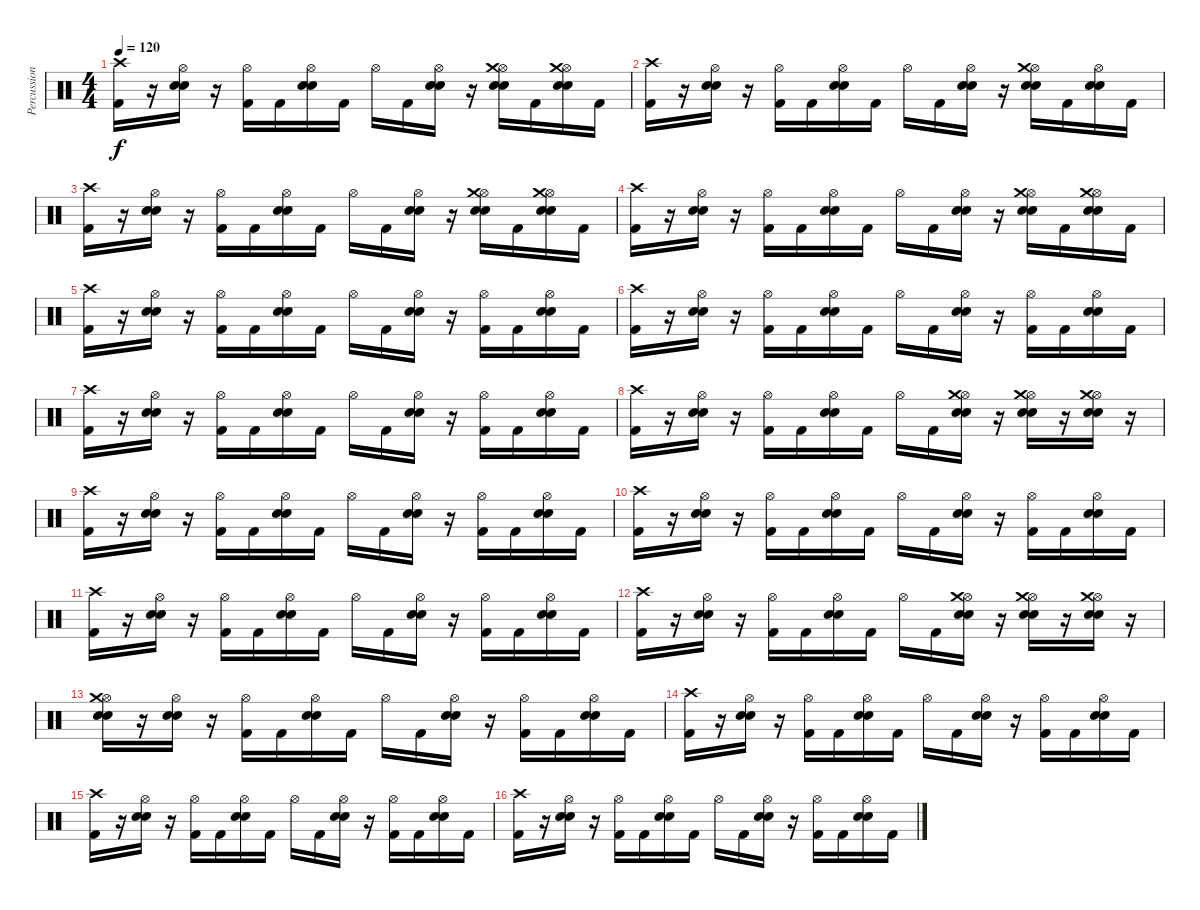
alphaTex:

\track ("Percussion" "Percussion") {instrument percussion}
\staff {score}
\articulation defaults
\ts (4 4)
\tempo 120
\clef neutral
\ks c
("Kick (hit) 2" "Crash high (hit)").16{dy f} r.16 ("Hi-Hat (open)" "Electric Snare (hit)" "Snare (hit) 2").16 r.16 ("Kick (hit) 2" "Hi-Hat (open)").16 "Kick (hit) 2".16 ("Electric Snare (hit)" "Hi-Hat (open)" "Snare (hit) 2").16 "Kick (hit) 2".16 "Hi-Hat (open)".16 "Kick (hit) 2".16 ("Hi-Hat (open)" "Electric Snare (hit)" "Snare (hit) 2").16 r.16 ("Hi-Hat (open)" "Electric Snare (hit)" "Snare (hit) 2" "Crash medium (hit)").16 "Kick (hit) 2".16 ("Hi-Hat (open)" "Electric Snare (hit)" "Snare (hit) 2" "Crash medium (hit)").16 "Kick (hit) 2".16 |
("Kick (hit) 2" "Crash high (hit)").16 r.16 ("Hi-Hat (open)" "Electric Snare (hit)" "Snare (hit) 2").16 r.16 ("Kick (hit) 2" "Hi-Hat (open)").16 "Kick (hit) 2".16 ("Electric Snare (hit)" "Hi-Hat (open)" "Snare (hit) 2").16 "Kick (hit) 2".16 "Hi-Hat (open)".16 "Kick (hit) 2".16 ("Hi-Hat (open)" "Electric Snare (hit)" "Snare (hit) 2").16 r.16 ("Hi-Hat (open)" "Electric Snare (hit)" "Snare (hit) 2" "Crash medium (hit)").16 "Kick (hit) 2".16 ("Hi-Hat (open)" "Electric Snare (hit)" "Snare (hit) 2").16 "Kick (hit) 2".16 |
("Kick (hit) 2" "Crash high (hit)").16 r.16 ("Hi-Hat (open)" "Electric Snare (hit)" "Snare (hit) 2").16 r.16 ("Kick (hit) 2" "Hi-Hat (open)").16 "Kick (hit) 2".16 ("Electric Snare (hit)" "Hi-Hat (open)" "Snare (hit) 2").16 "Kick (hit) 2".16 "Hi-Hat (open)".16 "Kick (hit) 2".16 ("Hi-Hat (open)" "Electric Snare (hit)" "Snare (hit) 2").16 r.16 ("Hi-Hat (open)" "Electric Snare (hit)" "Snare (hit) 2" "Crash medium (hit)").16 "Kick (hit) 2".16 ("Hi-Hat (open)" "Electric Snare (hit)" "Snare (hit) 2" "Crash medium (hit)").16 "Kick (hit) 2".16 |
("Kick (hit) 2" "Crash high (hit)").16 r.16 ("Hi-Hat (open)" "Electric Snare (hit)" "Snare (hit) 2").16 r.16 ("Kick (hit) 2" "Hi-Hat (open)").16 "Kick (hit) 2".16 ("Electric Snare (hit)" "Hi-Hat (open)" "Snare (hit) 2").16 "Kick (hit) 2".16 "Hi-Hat (open)".16 "Kick (hit) 2".16 ("Hi-Hat (open)" "Electric Snare (hit)" "Snare (hit) 2").16 r.16 ("Hi-Hat (open)" "Electric Snare (hit)" "Snare (hit) 2" "Crash medium (hit)").16 "Kick (hit) 2".16 ("Hi-Hat (open)" "Electric Snare (hit)" "Snare (hit) 2" "Crash medium (hit)").16 "Kick (hit) 2".16 |
("Kick (hit) 2" "Crash high (hit)").16 r.16 ("Hi-Hat (open)" "Electric Snare (hit)" "Snare (hit) 2").16 r.16 ("Kick (hit) 2" "Hi-Hat (open)").16 "Kick (hit) 2".16 ("Electric Snare (hit)" "Hi-Hat (open)" "Snare (hit) 2").16 "Kick (hit) 2".16 "Hi-Hat (open)".16 "Kick (hit) 2".16 ("Hi-Hat (open)" "Electric Snare (hit)" "Snare (hit) 2").16 r.16 ("Kick (hit) 2" "Hi-Hat (open)").16 "Kick (hit) 2".16 ("Electric Snare (hit)" "Hi-Hat (open)" "Snare (hit) 2").16 "Kick (hit) 2".16 |
("Kick (hit) 2" "Crash high (hit)").16 r.16 ("Hi-Hat (open)" "Electric Snare (hit)" "Snare (hit) 2").16 r.16 ("Kick (hit) 2" "Hi-Hat (open)").16 "Kick (hit) 2".16 ("Electric Snare (hit)" "Hi-Hat (open)" "Snare (hit) 2").16 "Kick (hit) 2".16 "Hi-Hat (open)".16 "Kick (hit) 2".16 ("Hi-Hat (open)" "Electric Snare (hit)" "Snare (hit) 2").16 r.16 ("Kick (hit) 2" "Hi-Hat (open)").16 "Kick (hit) 2".16 ("Electric Snare (hit)" "Hi-Hat (open)" "Snare (hit) 2").16 "Kick (hit) 2".16 |
("Kick (hit) 2" "Crash high (hit)").16 r.16 ("Hi-Hat (open)" "Electric Snare (hit)" "Snare (hit) 2").16 r.16 ("Kick (hit) 2" "Hi-Hat (open)").16 "Kick (hit) 2".16 ("Electric Snare (hit)" "Hi-Hat (open)" "Snare (hit) 2").16 "Kick (hit) 2".16 "Hi-Hat (open)".16 "Kick (hit) 2".16 ("Hi-Hat (open)" "Electric Snare (hit)" "Snare (hit) 2").16 r.16 ("Kick (hit) 2" "Hi-Hat (open)").16 "Kick (hit) 2".16 ("Electric Snare (hit)" "Hi-Hat (open)" "Snare (hit) 2").16 "Kick (hit) 2".16 |
("Kick (hit) 2" "Crash high (hit)").16 r.16 ("Hi-Hat (open)" "Electric Snare (hit)" "Snare (hit) 2").16 r.16 ("Kick (hit) 2" "Hi-Hat (open)").16 "Kick (hit) 2".16 ("Electric Snare (hit)" "Hi-Hat (open)" "Snare (hit) 2").16 "Kick (hit) 2".16 "Hi-Hat (open)".16 "Kick (hit) 2".16 ("Hi-Hat (open)" "Electric Snare (hit)" "Snare (hit) 2" "Crash medium (hit)").16 r.16 ("Hi-Hat (open)" "Electric Snare (hit)" "Snare (hit) 2" "Crash medium (hit)").16 r.16 ("Hi-Hat (open)" "Electric Snare (hit)" "Snare (hit) 2" "Crash medium (hit)").16 r.16 |
("Kick (hit) 2" "Crash high (hit)").16 r.16 ("Hi-Hat (open)" "Electric Snare (hit)" "Snare (hit) 2").16 r.16 ("Kick (hit) 2" "Hi-Hat (open)").16 "Kick (hit) 2".16 ("Electric Snare (hit)" "Hi-Hat (open)" "Snare (hit) 2").16 "Kick (hit) 2".16 "Hi-Hat (open)".16 "Kick (hit) 2".16 ("Hi-Hat (open)" "Electric Snare (hit)" "Snare (hit) 2").16 r.16 ("Kick (hit) 2" "Hi-Hat (open)").16 "Kick (hit) 2".16 ("Electric Snare (hit)" "Hi-Hat (open)" "Snare (hit) 2").16 "Kick (hit) 2".16 |
("Kick (hit) 2" "Crash high (hit)").16 r.16 ("Hi-Hat (open)" "Electric Snare (hit)" "Snare (hit) 2").16 r.16 ("Kick (hit) 2" "Hi-Hat (open)").16 "Kick (hit) 2".16 ("Electric Snare (hit)" "Hi-Hat (open)" "Snare (hit) 2").16 "Kick (hit) 2".16 "Hi-Hat (open)".16 "Kick (hit) 2".16 ("Hi-Hat (open)" "Electric Snare (hit)" "Snare (hit) 2").16 r.16 ("Kick (hit) 2" "Hi-Hat (open)").16 "Kick (hit) 2".16 ("Electric Snare (hit)" "Hi-Hat (open)" "Snare (hit) 2").16 "Kick (hit) 2".16 |
("Kick (hit) 2" "Crash high (hit)").16 r.16 ("Hi-Hat (open)" "Electric Snare (hit)" "Snare (hit) 2").16 r.16 ("Kick (hit) 2" "Hi-Hat (open)").16 "Kick (hit) 2".16 ("Electric Snare (hit)" "Hi-Hat (open)" "Snare (hit) 2").16 "Kick (hit) 2".16 "Hi-Hat (open)".16 "Kick (hit) 2".16 ("Hi-Hat (open)" "Electric Snare (hit)" "Snare (hit) 2").16 r.16 ("Kick (hit) 2" "Hi-Hat (open)").16 "Kick (hit) 2".16 ("Electric Snare (hit)" "Hi-Hat (open)" "Snare (hit) 2").16 "Kick (hit) 2".16 |
("Kick (hit) 2" "Crash high (hit)").16 r.16 ("Hi-Hat (open)" "Electric Snare (hit)" "Snare (hit) 2").16 r.16 ("Kick (hit) 2" "Hi-Hat (open)").16 "Kick (hit) 2".16 ("Electric Snare (hit)" "Hi-Hat (open)" "Snare (hit) 2").16 "Kick (hit) 2".16 "Hi-Hat (open)".16 "Kick (hit) 2".16 ("Hi-Hat (open)" "Electric Snare (hit)" "Snare (hit) 2" "Crash medium (hit)").16 r.16 ("Hi-Hat (open)" "Electric Snare (hit)" "Snare (hit) 2" "Crash medium (hit)").16 r.16 ("Hi-Hat (open)" "Electric Snare (hit)" "Snare (hit) 2" "Crash medium (hit)").16 r.16 |
("Hi-Hat (open)" "Electric Snare (hit)" "Snare (hit) 2" "Crash medium (hit)").16 r.16 ("Hi-Hat (open)" "Electric Snare (hit)" "Snare (hit) 2").16 r.16 ("Kick (hit) 2" "Hi-Hat (open)").16 "Kick (hit) 2".16 ("Electric Snare (hit)" "Hi-Hat (open)" "Snare (hit) 2").16 "Kick (hit) 2".16 "Hi-Hat (open)".16 "Kick (hit) 2".16 ("Hi-Hat (open)" "Electric Snare (hit)" "Snare (hit) 2").16 r.16 ("Kick (hit) 2" "Hi-Hat (open)").16 "Kick (hit) 2".16 ("Electric Snare (hit)" "Hi-Hat (open)" "Snare (hit) 2").16 "Kick (hit) 2".16 |
("Kick (hit) 2" "Crash high (hit)").16 r.16 ("Hi-Hat (open)" "Electric Snare (hit)" "Snare (hit) 2").16 r.16 ("Kick (hit) 2" "Hi-Hat (open)").16 "Kick (hit) 2".16 ("Electric Snare (hit)" "Hi-Hat (open)" "Snare (hit) 2").16 "Kick (hit) 2".16 "Hi-Hat (open)".16 "Kick (hit) 2".16 ("Hi-Hat (open)" "Electric Snare (hit)" "Snare (hit) 2").16 r.16 ("Kick (hit) 2" "Hi-Hat (open)").16 "Kick (hit) 2".16 ("Electric Snare (hit)" "Hi-Hat (open)" "Snare (hit) 2").16 "Kick (hit) 2".16 |
("Kick (hit) 2" "Crash high (hit)").16 r.16 ("Hi-Hat (open)" "Electric Snare (hit)" "Snare (hit) 2").16 r.16 ("Kick (hit) 2" "Hi-Hat (open)").16 "Kick (hit) 2".16 ("Electric Snare (hit)" "Hi-Hat (open)" "Snare (hit) 2").16 "Kick (hit) 2".16 "Hi-Hat (open)".16 "Kick (hit) 2".16 ("Hi-Hat (open)" "Electric Snare (hit)" "Snare (hit) 2").16 r.16 ("Kick (hit) 2" "Hi-Hat (open)").16 "Kick (hit) 2".16 ("Electric Snare (hit)" "Hi-Hat (open)" "Snare (hit) 2").16 "Kick (hit) 2".16 |
("Kick (hit) 2" "Crash high (hit)").16 r.16 ("Hi-Hat (open)" "Electric Snare (hit)" "Snare (hit) 2").16 r.16 ("Kick (hit) 2" "Hi-Hat (open)").16 "Kick (hit) 2".16 ("Electric Snare (hit)" "Hi-Hat (open)" "Snare (hit) 2").16 "Kick (hit) 2".16 "Hi-Hat (open)".16 "Kick (hit) 2".16 ("Hi-Hat (open)" "Electric Snare (hit)" "Snare (hit) 2").16 r.16 ("Kick (hit) 2" "Hi-Hat (open)").16 "Kick (hit) 2".16 ("Electric Snare (hit)" "Hi-Hat (open)" "Snare (hit) 2").16 "Kick (hit) 2".16
